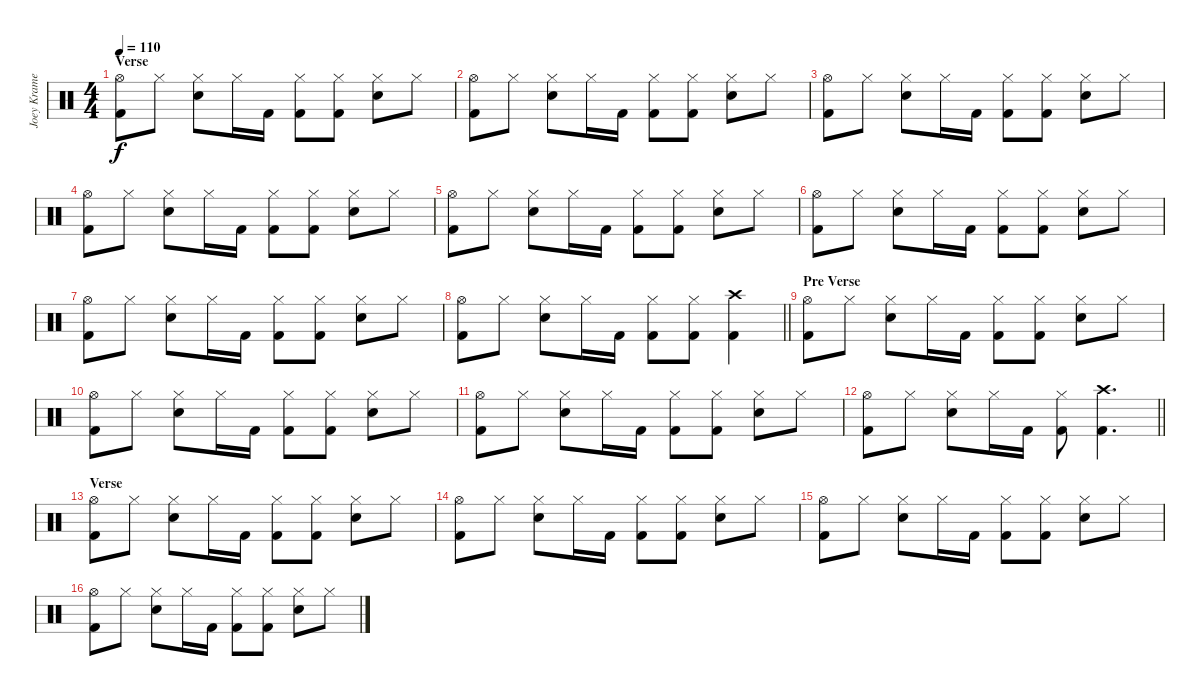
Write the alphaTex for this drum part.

\track ("Joey Kramer - Drums" "Joey Krame") {instrument percussion}
\staff {score}
\articulation defaults
\ts (4 4)
\section ("" "Verse")
\tempo 110
\clef neutral
\ks c
("Hi-Hat (open)" "Kick (hit) 2").8{dy f} "Hi-Hat (closed)".8 ("Hi-Hat (closed)" "Electric Snare (hit)").8 "Hi-Hat (closed)".16 "Kick (hit) 2".16 ("Hi-Hat (closed)" "Kick (hit) 2").8 ("Hi-Hat (closed)" "Kick (hit) 2").8 ("Hi-Hat (closed)" "Electric Snare (hit)").8 "Hi-Hat (closed)".8 |
("Hi-Hat (open)" "Kick (hit) 2").8 "Hi-Hat (closed)".8 ("Hi-Hat (closed)" "Electric Snare (hit)").8 "Hi-Hat (closed)".16 "Kick (hit) 2".16 ("Hi-Hat (closed)" "Kick (hit) 2").8 ("Hi-Hat (closed)" "Kick (hit) 2").8 ("Hi-Hat (closed)" "Electric Snare (hit)").8 "Hi-Hat (closed)".8 |
("Hi-Hat (open)" "Kick (hit) 2").8 "Hi-Hat (closed)".8 ("Hi-Hat (closed)" "Electric Snare (hit)").8 "Hi-Hat (closed)".16 "Kick (hit) 2".16 ("Hi-Hat (closed)" "Kick (hit) 2").8 ("Hi-Hat (closed)" "Kick (hit) 2").8 ("Hi-Hat (closed)" "Electric Snare (hit)").8 "Hi-Hat (closed)".8 |
("Hi-Hat (open)" "Kick (hit) 2").8 "Hi-Hat (closed)".8 ("Hi-Hat (closed)" "Electric Snare (hit)").8 "Hi-Hat (closed)".16 "Kick (hit) 2".16 ("Hi-Hat (closed)" "Kick (hit) 2").8 ("Hi-Hat (closed)" "Kick (hit) 2").8 ("Hi-Hat (closed)" "Electric Snare (hit)").8 "Hi-Hat (closed)".8 |
("Hi-Hat (open)" "Kick (hit) 2").8 "Hi-Hat (closed)".8 ("Hi-Hat (closed)" "Electric Snare (hit)").8 "Hi-Hat (closed)".16 "Kick (hit) 2".16 ("Hi-Hat (closed)" "Kick (hit) 2").8 ("Hi-Hat (closed)" "Kick (hit) 2").8 ("Hi-Hat (closed)" "Electric Snare (hit)").8 "Hi-Hat (closed)".8 |
("Hi-Hat (open)" "Kick (hit) 2").8 "Hi-Hat (closed)".8 ("Hi-Hat (closed)" "Electric Snare (hit)").8 "Hi-Hat (closed)".16 "Kick (hit) 2".16 ("Hi-Hat (closed)" "Kick (hit) 2").8 ("Hi-Hat (closed)" "Kick (hit) 2").8 ("Hi-Hat (closed)" "Electric Snare (hit)").8 "Hi-Hat (closed)".8 |
("Hi-Hat (open)" "Kick (hit) 2").8 "Hi-Hat (closed)".8 ("Hi-Hat (closed)" "Electric Snare (hit)").8 "Hi-Hat (closed)".16 "Kick (hit) 2".16 ("Hi-Hat (closed)" "Kick (hit) 2").8 ("Hi-Hat (closed)" "Kick (hit) 2").8 ("Hi-Hat (closed)" "Electric Snare (hit)").8 "Hi-Hat (closed)".8 |
\barLineRight lightlight
("Hi-Hat (open)" "Kick (hit) 2").8 "Hi-Hat (closed)".8 ("Hi-Hat (closed)" "Electric Snare (hit)").8 "Hi-Hat (closed)".16 "Kick (hit) 2".16 ("Hi-Hat (closed)" "Kick (hit) 2").8 ("Hi-Hat (closed)" "Kick (hit) 2").8 ("Crash high (hit)" "Kick (hit) 2").4 |
\section ("" "Pre Verse")
("Hi-Hat (open)" "Kick (hit) 2").8 "Hi-Hat (closed)".8 ("Hi-Hat (closed)" "Electric Snare (hit)").8 "Hi-Hat (closed)".16 "Kick (hit) 2".16 ("Hi-Hat (closed)" "Kick (hit) 2").8 ("Hi-Hat (closed)" "Kick (hit) 2").8 ("Hi-Hat (closed)" "Electric Snare (hit)").8 "Hi-Hat (closed)".8 |
("Hi-Hat (open)" "Kick (hit) 2").8 "Hi-Hat (closed)".8 ("Hi-Hat (closed)" "Electric Snare (hit)").8 "Hi-Hat (closed)".16 "Kick (hit) 2".16 ("Hi-Hat (closed)" "Kick (hit) 2").8 ("Hi-Hat (closed)" "Kick (hit) 2").8 ("Hi-Hat (closed)" "Electric Snare (hit)").8 "Hi-Hat (closed)".8 |
("Hi-Hat (open)" "Kick (hit) 2").8 "Hi-Hat (closed)".8 ("Hi-Hat (closed)" "Electric Snare (hit)").8 "Hi-Hat (closed)".16 "Kick (hit) 2".16 ("Hi-Hat (closed)" "Kick (hit) 2").8 ("Hi-Hat (closed)" "Kick (hit) 2").8 ("Hi-Hat (closed)" "Electric Snare (hit)").8 "Hi-Hat (closed)".8 |
\barLineRight lightlight
("Hi-Hat (open)" "Kick (hit) 2").8 "Hi-Hat (closed)".8 ("Hi-Hat (closed)" "Electric Snare (hit)").8 "Hi-Hat (closed)".16 "Kick (hit) 2".16 ("Hi-Hat (closed)" "Kick (hit) 2").8 ("Crash high (hit)" "Kick (hit) 2").4{d} |
\section ("" "Verse")
("Hi-Hat (open)" "Kick (hit) 2").8 "Hi-Hat (closed)".8 ("Hi-Hat (closed)" "Electric Snare (hit)").8 "Hi-Hat (closed)".16 "Kick (hit) 2".16 ("Hi-Hat (closed)" "Kick (hit) 2").8 ("Hi-Hat (closed)" "Kick (hit) 2").8 ("Hi-Hat (closed)" "Electric Snare (hit)").8 "Hi-Hat (closed)".8 |
("Hi-Hat (open)" "Kick (hit) 2").8 "Hi-Hat (closed)".8 ("Hi-Hat (closed)" "Electric Snare (hit)").8 "Hi-Hat (closed)".16 "Kick (hit) 2".16 ("Hi-Hat (closed)" "Kick (hit) 2").8 ("Hi-Hat (closed)" "Kick (hit) 2").8 ("Hi-Hat (closed)" "Electric Snare (hit)").8 "Hi-Hat (closed)".8 |
("Hi-Hat (open)" "Kick (hit) 2").8 "Hi-Hat (closed)".8 ("Hi-Hat (closed)" "Electric Snare (hit)").8 "Hi-Hat (closed)".16 "Kick (hit) 2".16 ("Hi-Hat (closed)" "Kick (hit) 2").8 ("Hi-Hat (closed)" "Kick (hit) 2").8 ("Hi-Hat (closed)" "Electric Snare (hit)").8 "Hi-Hat (closed)".8 |
("Hi-Hat (open)" "Kick (hit) 2").8 "Hi-Hat (closed)".8 ("Hi-Hat (closed)" "Electric Snare (hit)").8 "Hi-Hat (closed)".16 "Kick (hit) 2".16 ("Hi-Hat (closed)" "Kick (hit) 2").8 ("Hi-Hat (closed)" "Kick (hit) 2").8 ("Hi-Hat (closed)" "Electric Snare (hit)").8 "Hi-Hat (closed)".8
